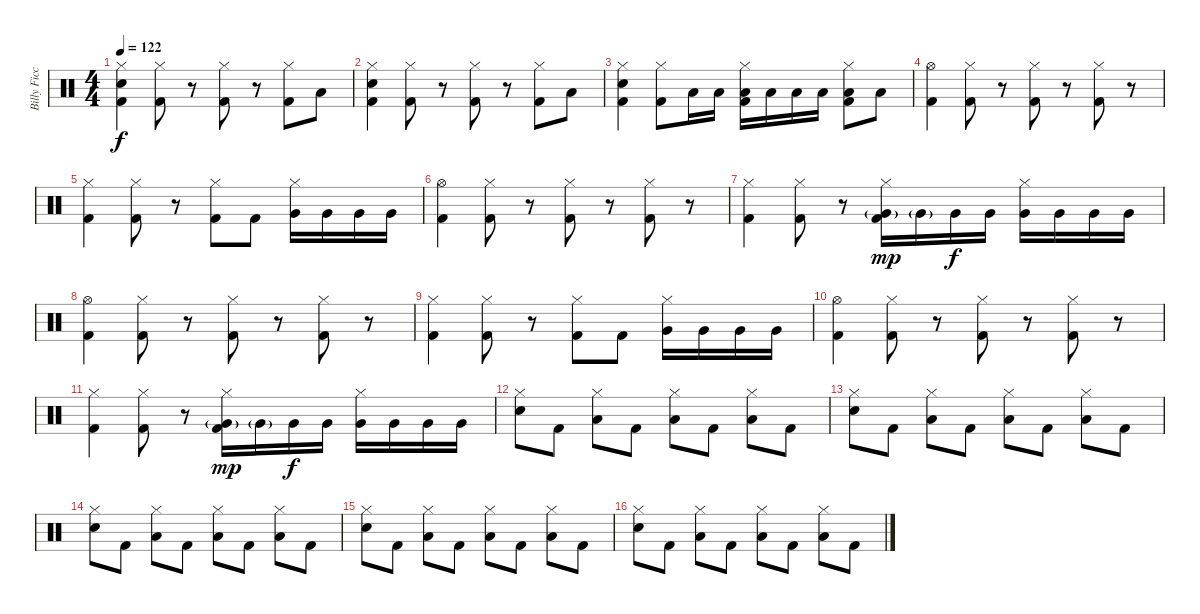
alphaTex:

\track ("Billy Ficca" "Billy Ficc") {instrument percussion}
\staff {score}
\articulation defaults
\ts (4 4)
\tempo 122
\clef neutral
\ks c
("Hi-Hat (closed)" "Electric Snare (hit)" "Kick (hit) 2").4{dy f} ("Hi-Hat (closed)" "Kick (hit) 2").8 r.8 ("Hi-Hat (closed)" "Kick (hit) 2").8 r.8 ("Hi-Hat (closed)" "Kick (hit) 2").8 "Low Floor Tom (hit)".8 |
("Hi-Hat (closed)" "Electric Snare (hit)" "Kick (hit) 2").4 ("Hi-Hat (closed)" "Kick (hit) 2").8 r.8 ("Hi-Hat (closed)" "Kick (hit) 2").8 r.8 ("Hi-Hat (closed)" "Kick (hit) 2").8 "Low Floor Tom (hit)".8 |
("Hi-Hat (closed)" "Electric Snare (hit)" "Kick (hit) 2").4 ("Hi-Hat (closed)" "Kick (hit) 2").8 "Low Floor Tom (hit)".16 "Low Floor Tom (hit)".16 ("Hi-Hat (closed)" "Low Floor Tom (hit)" "Kick (hit) 2").16 "Low Floor Tom (hit)".16 "Low Floor Tom (hit)".16 "Low Floor Tom (hit)".16 ("Hi-Hat (closed)" "Low Floor Tom (hit)" "Kick (hit) 2").8 "Low Floor Tom (hit)".8 |
("Hi-Hat (open)" "Kick (hit) 2").4 ("Hi-Hat (closed)" "Kick (hit) 2").8 r.8 ("Hi-Hat (closed)" "Kick (hit) 2").8 r.8 ("Hi-Hat (closed)" "Kick (hit) 2").8 r.8 |
("Hi-Hat (closed)" "Kick (hit) 2").4 ("Hi-Hat (closed)" "Kick (hit) 2").8 r.8 ("Hi-Hat (closed)" "Kick (hit) 2").8 "Kick (hit) 2".8 ("Hi-Hat (closed)" "Very Low Tom (hit)").16 "Very Low Tom (hit)".16 "Very Low Tom (hit)".16 "Very Low Tom (hit)".16 |
("Hi-Hat (open)" "Kick (hit) 2").4 ("Hi-Hat (closed)" "Kick (hit) 2").8 r.8 ("Hi-Hat (closed)" "Kick (hit) 2").8 r.8 ("Hi-Hat (closed)" "Kick (hit) 2").8 r.8 |
("Hi-Hat (closed)" "Kick (hit) 2").4 ("Hi-Hat (closed)" "Kick (hit) 2").8 r.8 ("Hi-Hat (closed)" "Very Low Tom (hit)"{g} "Kick (hit) 2").16{dy mp} "Very Low Tom (hit)"{g}.16 "Very Low Tom (hit)".16{dy f} "Very Low Tom (hit)".16 ("Hi-Hat (closed)" "Very Low Tom (hit)").16 "Very Low Tom (hit)".16 "Very Low Tom (hit)".16 "Very Low Tom (hit)".16 |
("Hi-Hat (open)" "Kick (hit) 2").4 ("Hi-Hat (closed)" "Kick (hit) 2").8 r.8 ("Hi-Hat (closed)" "Kick (hit) 2").8 r.8 ("Hi-Hat (closed)" "Kick (hit) 2").8 r.8 |
("Hi-Hat (closed)" "Kick (hit) 2").4 ("Hi-Hat (closed)" "Kick (hit) 2").8 r.8 ("Hi-Hat (closed)" "Kick (hit) 2").8 "Kick (hit) 2".8 ("Hi-Hat (closed)" "Very Low Tom (hit)").16 "Very Low Tom (hit)".16 "Very Low Tom (hit)".16 "Very Low Tom (hit)".16 |
("Hi-Hat (open)" "Kick (hit) 2").4 ("Hi-Hat (closed)" "Kick (hit) 2").8 r.8 ("Hi-Hat (closed)" "Kick (hit) 2").8 r.8 ("Hi-Hat (closed)" "Kick (hit) 2").8 r.8 |
("Hi-Hat (closed)" "Kick (hit) 2").4 ("Hi-Hat (closed)" "Kick (hit) 2").8 r.8 ("Hi-Hat (closed)" "Very Low Tom (hit)"{g} "Kick (hit) 2").16{dy mp} "Very Low Tom (hit)"{g}.16 "Very Low Tom (hit)".16{dy f} "Very Low Tom (hit)".16 ("Hi-Hat (closed)" "Very Low Tom (hit)").16 "Very Low Tom (hit)".16 "Very Low Tom (hit)".16 "Very Low Tom (hit)".16 |
("Hi-Hat (closed)" "Electric Snare (hit)").8 "Kick (hit) 2".8 ("Hi-Hat (closed)" "Low Floor Tom (hit)").8 "Kick (hit) 2".8 ("Hi-Hat (closed)" "Low Floor Tom (hit)").8 "Kick (hit) 2".8 ("Hi-Hat (closed)" "Low Floor Tom (hit)").8 "Kick (hit) 2".8 |
("Hi-Hat (closed)" "Electric Snare (hit)").8 "Kick (hit) 2".8 ("Hi-Hat (closed)" "Low Floor Tom (hit)").8 "Kick (hit) 2".8 ("Hi-Hat (closed)" "Low Floor Tom (hit)").8 "Kick (hit) 2".8 ("Hi-Hat (closed)" "Low Floor Tom (hit)").8 "Kick (hit) 2".8 |
("Hi-Hat (closed)" "Electric Snare (hit)").8 "Kick (hit) 2".8 ("Hi-Hat (closed)" "Low Floor Tom (hit)").8 "Kick (hit) 2".8 ("Hi-Hat (closed)" "Low Floor Tom (hit)").8 "Kick (hit) 2".8 ("Hi-Hat (closed)" "Low Floor Tom (hit)").8 "Kick (hit) 2".8 |
("Hi-Hat (closed)" "Electric Snare (hit)").8 "Kick (hit) 2".8 ("Hi-Hat (closed)" "Low Floor Tom (hit)").8 "Kick (hit) 2".8 ("Hi-Hat (closed)" "Low Floor Tom (hit)").8 "Kick (hit) 2".8 ("Hi-Hat (closed)" "Low Floor Tom (hit)").8 "Kick (hit) 2".8 |
("Hi-Hat (closed)" "Electric Snare (hit)").8 "Kick (hit) 2".8 ("Hi-Hat (closed)" "Low Floor Tom (hit)").8 "Kick (hit) 2".8 ("Hi-Hat (closed)" "Low Floor Tom (hit)").8 "Kick (hit) 2".8 ("Hi-Hat (closed)" "Low Floor Tom (hit)").8 "Kick (hit) 2".8
